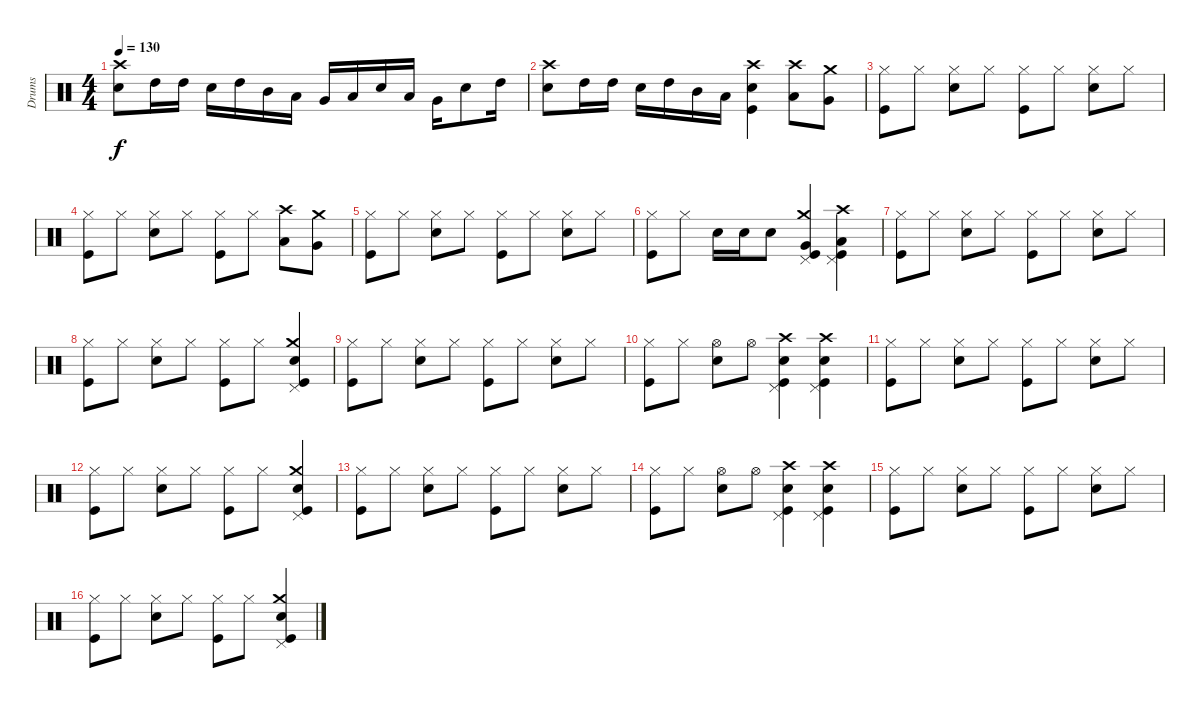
\track ("Drums" "Drums") {instrument percussion}
\staff {score}
\articulation defaults
\ts (4 4)
\tempo 130
\clef neutral
\ks c
("Crash high (hit)" "Electric Snare (hit)").8{dy f} "High Tom (hit)".16 "High Tom (hit)".16 "Electric Snare (hit)".16 "High Tom (hit)".16 "Mid Tom (hit)".16 "Low Tom (hit)".16 "Very Low Tom (hit)".16 "Low Floor Tom (hit)".16 "Electric Snare (hit)".16 "Low Floor Tom (hit)".16 "Very Low Tom (hit)".16 "Electric Snare (hit)".8 "High Tom (hit)".16 |
("Crash high (hit)" "Electric Snare (hit)").8 "High Tom (hit)".16 "High Tom (hit)".16 "Electric Snare (hit)".16 "High Tom (hit)".16 "Mid Tom (hit)".16 "Low Tom (hit)".16 ("Crash high (hit)" "Electric Snare (hit)" "Kick (hit)").4 ("Crash high (hit)" "Low Floor Tom (hit)").8{volume 13} ("Crash medium (hit)" "Very Low Tom (hit)").8 |
("Hi-Hat (closed)" "Kick (hit)").8 "Hi-Hat (closed)".8 ("Hi-Hat (closed)" "Electric Snare (hit)").8 "Hi-Hat (closed)".8 ("Hi-Hat (closed)" "Kick (hit)").8 "Hi-Hat (closed)".8 ("Hi-Hat (closed)" "Electric Snare (hit)").8 "Hi-Hat (closed)".8 |
("Hi-Hat (closed)" "Kick (hit)").8 "Hi-Hat (closed)".8 ("Hi-Hat (closed)" "Electric Snare (hit)").8 "Hi-Hat (closed)".8 ("Hi-Hat (closed)" "Kick (hit)").8 "Hi-Hat (closed)".8 ("Crash high (hit)" "Low Floor Tom (hit)").8 ("Crash medium (hit)" "Very Low Tom (hit)").8 |
("Hi-Hat (closed)" "Kick (hit)").8 "Hi-Hat (closed)".8 ("Hi-Hat (closed)" "Electric Snare (hit)").8 "Hi-Hat (closed)".8 ("Hi-Hat (closed)" "Kick (hit)").8 "Hi-Hat (closed)".8 ("Hi-Hat (closed)" "Electric Snare (hit)").8 "Hi-Hat (closed)".8 |
("Hi-Hat (closed)" "Kick (hit)").8 "Hi-Hat (closed)".8 "Electric Snare (hit)".16 "Electric Snare (hit)".16 "Electric Snare (hit)".8 ("Crash medium (hit)" "Pedal Hi-Hat (hit)" "Very Low Tom (hit)" "Kick (hit)").4 ("Crash high (hit)" "Pedal Hi-Hat (hit)" "Low Floor Tom (hit)" "Kick (hit)").4 |
("Hi-Hat (closed)" "Kick (hit)").8 "Hi-Hat (closed)".8 ("Hi-Hat (closed)" "Electric Snare (hit)").8 "Hi-Hat (closed)".8 ("Hi-Hat (closed)" "Kick (hit)").8 "Hi-Hat (closed)".8 ("Hi-Hat (closed)" "Electric Snare (hit)").8 "Hi-Hat (closed)".8 |
("Hi-Hat (closed)" "Kick (hit)").8 "Hi-Hat (closed)".8 ("Hi-Hat (closed)" "Electric Snare (hit)").8 "Hi-Hat (closed)".8 ("Hi-Hat (closed)" "Kick (hit)").8 "Hi-Hat (closed)".8 ("Crash medium (hit)" "Pedal Hi-Hat (hit)" "Electric Snare (hit)" "Kick (hit)").4 |
("Hi-Hat (closed)" "Kick (hit)").8 "Hi-Hat (closed)".8 ("Hi-Hat (closed)" "Electric Snare (hit)").8 "Hi-Hat (closed)".8 ("Hi-Hat (closed)" "Kick (hit)").8 "Hi-Hat (closed)".8 ("Hi-Hat (closed)" "Electric Snare (hit)").8 "Hi-Hat (closed)".8 |
("Hi-Hat (closed)" "Kick (hit)").8 "Hi-Hat (closed)".8 ("Hi-Hat (open)" "Electric Snare (hit)").8 "Hi-Hat (open)".8 ("Crash high (hit)" "Pedal Hi-Hat (hit)" "Electric Snare (hit)" "Kick (hit)").4 ("Crash high (hit)" "Pedal Hi-Hat (hit)" "Electric Snare (hit)" "Kick (hit)").4 |
("Hi-Hat (closed)" "Kick (hit)").8 "Hi-Hat (closed)".8 ("Hi-Hat (closed)" "Electric Snare (hit)").8 "Hi-Hat (closed)".8 ("Hi-Hat (closed)" "Kick (hit)").8 "Hi-Hat (closed)".8 ("Hi-Hat (closed)" "Electric Snare (hit)").8 "Hi-Hat (closed)".8 |
("Hi-Hat (closed)" "Kick (hit)").8 "Hi-Hat (closed)".8 ("Hi-Hat (closed)" "Electric Snare (hit)").8 "Hi-Hat (closed)".8 ("Hi-Hat (closed)" "Kick (hit)").8 "Hi-Hat (closed)".8 ("Crash medium (hit)" "Pedal Hi-Hat (hit)" "Electric Snare (hit)" "Kick (hit)").4 |
("Hi-Hat (closed)" "Kick (hit)").8 "Hi-Hat (closed)".8 ("Hi-Hat (closed)" "Electric Snare (hit)").8 "Hi-Hat (closed)".8 ("Hi-Hat (closed)" "Kick (hit)").8 "Hi-Hat (closed)".8 ("Hi-Hat (closed)" "Electric Snare (hit)").8 "Hi-Hat (closed)".8 |
("Hi-Hat (closed)" "Kick (hit)").8 "Hi-Hat (closed)".8 ("Hi-Hat (open)" "Electric Snare (hit)").8 "Hi-Hat (open)".8 ("Crash high (hit)" "Pedal Hi-Hat (hit)" "Electric Snare (hit)" "Kick (hit)").4 ("Crash high (hit)" "Pedal Hi-Hat (hit)" "Electric Snare (hit)" "Kick (hit)").4 |
("Hi-Hat (closed)" "Kick (hit)").8 "Hi-Hat (closed)".8 ("Hi-Hat (closed)" "Electric Snare (hit)").8 "Hi-Hat (closed)".8 ("Hi-Hat (closed)" "Kick (hit)").8 "Hi-Hat (closed)".8 ("Hi-Hat (closed)" "Electric Snare (hit)").8 "Hi-Hat (closed)".8 |
("Hi-Hat (closed)" "Kick (hit)").8 "Hi-Hat (closed)".8 ("Hi-Hat (closed)" "Electric Snare (hit)").8 "Hi-Hat (closed)".8 ("Hi-Hat (closed)" "Kick (hit)").8 "Hi-Hat (closed)".8 ("Crash medium (hit)" "Pedal Hi-Hat (hit)" "Electric Snare (hit)" "Kick (hit)").4
